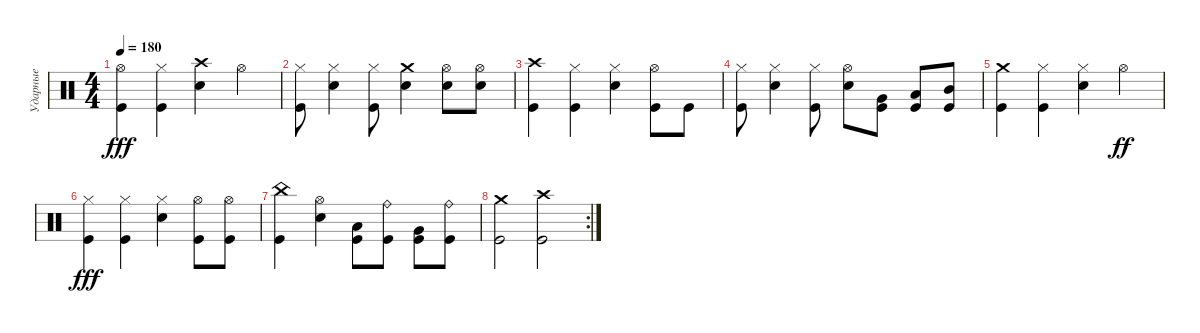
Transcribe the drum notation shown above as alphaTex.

\track ("Ударные" "Ударные") {instrument percussion}
\staff {score}
\articulation defaults
\ts (4 4)
\tempo 180
\clef neutral
\ks c
("Hi-Hat (open)" "Kick (hit)").4{dy fff} ("Hi-Hat (closed)" "Kick (hit)").4 ("Crash high (hit)" "Electric Snare (hit)").4 "Hi-Hat (open)".4 |
("Hi-Hat (closed)" "Kick (hit)").8 ("Hi-Hat (closed)" "Electric Snare (hit)").4 ("Hi-Hat (closed)" "Kick (hit)").8 ("Crash medium (hit)" "Electric Snare (hit)").4 ("Hi-Hat (open)" "Electric Snare (hit)").8 ("Hi-Hat (open)" "Electric Snare (hit)").8 |
("Crash high (hit)" "Kick (hit)").4 ("Hi-Hat (closed)" "Kick (hit)").4 ("Hi-Hat (closed)" "Electric Snare (hit)").4 ("Hi-Hat (open)" "Kick (hit)").8 "Kick (hit)".8 |
("Hi-Hat (closed)" "Kick (hit)").8 ("Hi-Hat (closed)" "Electric Snare (hit)").4 ("Hi-Hat (closed)" "Kick (hit)").8 ("Hi-Hat (open)" "Electric Snare (hit)").8 ("Very Low Tom (hit)" "Kick (hit)").8 ("Low Tom (hit)" "Kick (hit)").8 ("Mid Tom (hit)" "Kick (hit)").8 |
("Crash medium (hit)" "Kick (hit)").4 ("Hi-Hat (closed)" "Kick (hit)").4 ("Hi-Hat (closed)" "Electric Snare (hit)").4 "Hi-Hat (open)".4{dy ff} |
("Hi-Hat (closed)" "Kick (hit)").4{dy fff} ("Hi-Hat (closed)" "Kick (hit)").4 ("Hi-Hat (closed)" "Electric Snare (hit)").4 ("Hi-Hat (open)" "Kick (hit)").8 ("Hi-Hat (open)" "Kick (hit)").8 |
("China (hit)" "Kick (hit)").4 ("Hi-Hat (open)" "Electric Snare (hit)").4 ("Low Floor Tom (hit)" "Kick (hit)").8 ("Ride (bell)" "Kick (hit)").8 ("Very Low Tom (hit)" "Kick (hit)").8 ("Ride (bell)" "Kick (hit)").8 |
\rc 2
("Crash medium (hit)" "Kick (hit)").2 ("Crash high (hit)" "Kick (hit)").2
